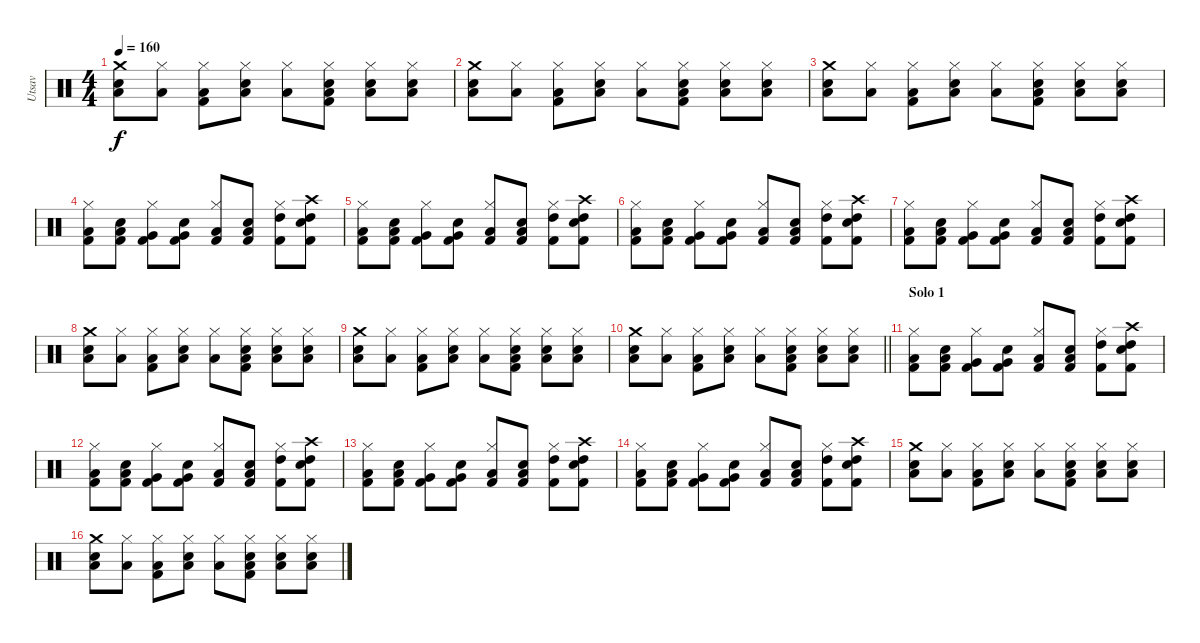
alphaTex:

\track ("Utsav" "Utsav") {instrument percussion}
\staff {score}
\articulation defaults
\ts (4 4)
\tempo 160
\clef neutral
\ks c
("Crash medium (hit)" "Low Floor Tom (hit)" "Snare (hit) 2").8{dy f} ("Low Floor Tom (hit)" "Hi-Hat (closed)").8 ("Low Floor Tom (hit)" "Hi-Hat (closed)" "Kick (hit) 2").8 ("Low Floor Tom (hit)" "Hi-Hat (closed)" "Snare (hit) 2").8 ("Low Floor Tom (hit)" "Hi-Hat (closed)").8 ("Low Floor Tom (hit)" "Hi-Hat (closed)" "Snare (hit) 2" "Kick (hit) 2").8 ("Low Floor Tom (hit)" "Hi-Hat (closed)" "Snare (hit) 2").8 ("Low Floor Tom (hit)" "Hi-Hat (closed)" "Snare (hit) 2").8 |
("Crash medium (hit)" "Low Floor Tom (hit)" "Snare (hit) 2").8 ("Low Floor Tom (hit)" "Hi-Hat (closed)").8 ("Low Floor Tom (hit)" "Hi-Hat (closed)" "Kick (hit) 2").8 ("Low Floor Tom (hit)" "Hi-Hat (closed)" "Snare (hit) 2").8 ("Low Floor Tom (hit)" "Hi-Hat (closed)").8 ("Low Floor Tom (hit)" "Hi-Hat (closed)" "Snare (hit) 2" "Kick (hit) 2").8 ("Low Floor Tom (hit)" "Hi-Hat (closed)" "Snare (hit) 2").8 ("Low Floor Tom (hit)" "Hi-Hat (closed)" "Snare (hit) 2").8 |
("Crash medium (hit)" "Low Floor Tom (hit)" "Snare (hit) 2").8 ("Low Floor Tom (hit)" "Hi-Hat (closed)").8 ("Low Floor Tom (hit)" "Hi-Hat (closed)" "Kick (hit) 2").8 ("Low Floor Tom (hit)" "Hi-Hat (closed)" "Snare (hit) 2").8 ("Low Floor Tom (hit)" "Hi-Hat (closed)").8 ("Low Floor Tom (hit)" "Hi-Hat (closed)" "Snare (hit) 2" "Kick (hit) 2").8 ("Low Floor Tom (hit)" "Hi-Hat (closed)" "Snare (hit) 2").8 ("Low Floor Tom (hit)" "Hi-Hat (closed)" "Snare (hit) 2").8 |
("Low Tom (hit)" "Hi-Hat (closed)" "Kick (hit) 2").8 ("Low Tom (hit)" "Snare (hit) 2" "Kick (hit) 2").8 ("Very Low Tom (hit)" "Hi-Hat (closed)" "Kick (hit) 2").8 ("Very Low Tom (hit)" "Snare (hit) 2" "Kick (hit) 2").8 ("Low Floor Tom (hit)" "Hi-Hat (closed)" "Kick (hit) 2").8 ("Low Floor Tom (hit)" "Snare (hit) 2" "Kick (hit) 2").8 ("High Tom (hit)" "Hi-Hat (closed)" "Kick (hit) 2").8 ("High Tom (hit)" "Crash high (hit)" "Snare (hit) 2" "Kick (hit) 2").8 |
("Low Tom (hit)" "Hi-Hat (closed)" "Kick (hit) 2").8 ("Low Tom (hit)" "Snare (hit) 2" "Kick (hit) 2").8 ("Very Low Tom (hit)" "Hi-Hat (closed)" "Kick (hit) 2").8 ("Very Low Tom (hit)" "Snare (hit) 2" "Kick (hit) 2").8 ("Low Floor Tom (hit)" "Hi-Hat (closed)" "Kick (hit) 2").8 ("Low Floor Tom (hit)" "Snare (hit) 2" "Kick (hit) 2").8 ("High Tom (hit)" "Hi-Hat (closed)" "Kick (hit) 2").8 ("High Tom (hit)" "Crash high (hit)" "Snare (hit) 2" "Kick (hit) 2").8 |
("Low Tom (hit)" "Hi-Hat (closed)" "Kick (hit) 2").8 ("Low Tom (hit)" "Snare (hit) 2" "Kick (hit) 2").8 ("Very Low Tom (hit)" "Hi-Hat (closed)" "Kick (hit) 2").8 ("Very Low Tom (hit)" "Snare (hit) 2" "Kick (hit) 2").8 ("Low Floor Tom (hit)" "Hi-Hat (closed)" "Kick (hit) 2").8 ("Low Floor Tom (hit)" "Snare (hit) 2" "Kick (hit) 2").8 ("High Tom (hit)" "Hi-Hat (closed)" "Kick (hit) 2").8 ("High Tom (hit)" "Crash high (hit)" "Snare (hit) 2" "Kick (hit) 2").8 |
("Low Tom (hit)" "Hi-Hat (closed)" "Kick (hit) 2").8 ("Low Tom (hit)" "Snare (hit) 2" "Kick (hit) 2").8 ("Very Low Tom (hit)" "Hi-Hat (closed)" "Kick (hit) 2").8 ("Very Low Tom (hit)" "Snare (hit) 2" "Kick (hit) 2").8 ("Low Floor Tom (hit)" "Hi-Hat (closed)" "Kick (hit) 2").8 ("Low Floor Tom (hit)" "Snare (hit) 2" "Kick (hit) 2").8 ("High Tom (hit)" "Hi-Hat (closed)" "Kick (hit) 2").8 ("High Tom (hit)" "Crash high (hit)" "Snare (hit) 2" "Kick (hit) 2").8 |
("Crash medium (hit)" "Low Floor Tom (hit)" "Snare (hit) 2").8 ("Low Floor Tom (hit)" "Hi-Hat (closed)").8 ("Low Floor Tom (hit)" "Hi-Hat (closed)" "Kick (hit) 2").8 ("Low Floor Tom (hit)" "Hi-Hat (closed)" "Snare (hit) 2").8 ("Low Floor Tom (hit)" "Hi-Hat (closed)").8 ("Low Floor Tom (hit)" "Hi-Hat (closed)" "Snare (hit) 2" "Kick (hit) 2").8 ("Low Floor Tom (hit)" "Hi-Hat (closed)" "Snare (hit) 2").8 ("Low Floor Tom (hit)" "Hi-Hat (closed)" "Snare (hit) 2").8 |
("Crash medium (hit)" "Low Floor Tom (hit)" "Snare (hit) 2").8 ("Low Floor Tom (hit)" "Hi-Hat (closed)").8 ("Low Floor Tom (hit)" "Hi-Hat (closed)" "Kick (hit) 2").8 ("Low Floor Tom (hit)" "Hi-Hat (closed)" "Snare (hit) 2").8 ("Low Floor Tom (hit)" "Hi-Hat (closed)").8 ("Low Floor Tom (hit)" "Hi-Hat (closed)" "Snare (hit) 2" "Kick (hit) 2").8 ("Low Floor Tom (hit)" "Hi-Hat (closed)" "Snare (hit) 2").8 ("Low Floor Tom (hit)" "Hi-Hat (closed)" "Snare (hit) 2").8 |
\barLineRight lightlight
("Crash medium (hit)" "Low Floor Tom (hit)" "Snare (hit) 2").8 ("Low Floor Tom (hit)" "Hi-Hat (closed)").8 ("Low Floor Tom (hit)" "Hi-Hat (closed)" "Kick (hit) 2").8 ("Low Floor Tom (hit)" "Hi-Hat (closed)" "Snare (hit) 2").8 ("Low Floor Tom (hit)" "Hi-Hat (closed)").8 ("Low Floor Tom (hit)" "Hi-Hat (closed)" "Snare (hit) 2" "Kick (hit) 2").8 ("Low Floor Tom (hit)" "Hi-Hat (closed)" "Snare (hit) 2").8 ("Low Floor Tom (hit)" "Hi-Hat (closed)" "Snare (hit) 2").8 |
\section ("" "Solo 1")
("Low Tom (hit)" "Hi-Hat (closed)" "Kick (hit) 2").8 ("Low Tom (hit)" "Snare (hit) 2" "Kick (hit) 2").8 ("Very Low Tom (hit)" "Hi-Hat (closed)" "Kick (hit) 2").8 ("Very Low Tom (hit)" "Snare (hit) 2" "Kick (hit) 2").8 ("Low Floor Tom (hit)" "Hi-Hat (closed)" "Kick (hit) 2").8 ("Low Floor Tom (hit)" "Snare (hit) 2" "Kick (hit) 2").8 ("High Tom (hit)" "Hi-Hat (closed)" "Kick (hit) 2").8 ("High Tom (hit)" "Crash high (hit)" "Snare (hit) 2" "Kick (hit) 2").8 |
("Low Tom (hit)" "Hi-Hat (closed)" "Kick (hit) 2").8 ("Low Tom (hit)" "Snare (hit) 2" "Kick (hit) 2").8 ("Very Low Tom (hit)" "Hi-Hat (closed)" "Kick (hit) 2").8 ("Very Low Tom (hit)" "Snare (hit) 2" "Kick (hit) 2").8 ("Low Floor Tom (hit)" "Hi-Hat (closed)" "Kick (hit) 2").8 ("Low Floor Tom (hit)" "Snare (hit) 2" "Kick (hit) 2").8 ("High Tom (hit)" "Hi-Hat (closed)" "Kick (hit) 2").8 ("High Tom (hit)" "Crash high (hit)" "Snare (hit) 2" "Kick (hit) 2").8 |
("Low Tom (hit)" "Hi-Hat (closed)" "Kick (hit) 2").8 ("Low Tom (hit)" "Snare (hit) 2" "Kick (hit) 2").8 ("Very Low Tom (hit)" "Hi-Hat (closed)" "Kick (hit) 2").8 ("Very Low Tom (hit)" "Snare (hit) 2" "Kick (hit) 2").8 ("Low Floor Tom (hit)" "Hi-Hat (closed)" "Kick (hit) 2").8 ("Low Floor Tom (hit)" "Snare (hit) 2" "Kick (hit) 2").8 ("High Tom (hit)" "Hi-Hat (closed)" "Kick (hit) 2").8 ("High Tom (hit)" "Crash high (hit)" "Snare (hit) 2" "Kick (hit) 2").8 |
("Low Tom (hit)" "Hi-Hat (closed)" "Kick (hit) 2").8 ("Low Tom (hit)" "Snare (hit) 2" "Kick (hit) 2").8 ("Very Low Tom (hit)" "Hi-Hat (closed)" "Kick (hit) 2").8 ("Very Low Tom (hit)" "Snare (hit) 2" "Kick (hit) 2").8 ("Low Floor Tom (hit)" "Hi-Hat (closed)" "Kick (hit) 2").8 ("Low Floor Tom (hit)" "Snare (hit) 2" "Kick (hit) 2").8 ("High Tom (hit)" "Hi-Hat (closed)" "Kick (hit) 2").8 ("High Tom (hit)" "Crash high (hit)" "Snare (hit) 2" "Kick (hit) 2").8 |
("Crash medium (hit)" "Low Floor Tom (hit)" "Snare (hit) 2").8 ("Low Floor Tom (hit)" "Hi-Hat (closed)").8 ("Low Floor Tom (hit)" "Hi-Hat (closed)" "Kick (hit) 2").8 ("Low Floor Tom (hit)" "Hi-Hat (closed)" "Snare (hit) 2").8 ("Low Floor Tom (hit)" "Hi-Hat (closed)").8 ("Low Floor Tom (hit)" "Hi-Hat (closed)" "Snare (hit) 2" "Kick (hit) 2").8 ("Low Floor Tom (hit)" "Hi-Hat (closed)" "Snare (hit) 2").8 ("Low Floor Tom (hit)" "Hi-Hat (closed)" "Snare (hit) 2").8 |
("Crash medium (hit)" "Low Floor Tom (hit)" "Snare (hit) 2").8 ("Low Floor Tom (hit)" "Hi-Hat (closed)").8 ("Low Floor Tom (hit)" "Hi-Hat (closed)" "Kick (hit) 2").8 ("Low Floor Tom (hit)" "Hi-Hat (closed)" "Snare (hit) 2").8 ("Low Floor Tom (hit)" "Hi-Hat (closed)").8 ("Low Floor Tom (hit)" "Hi-Hat (closed)" "Snare (hit) 2" "Kick (hit) 2").8 ("Low Floor Tom (hit)" "Hi-Hat (closed)" "Snare (hit) 2").8 ("Low Floor Tom (hit)" "Hi-Hat (closed)" "Snare (hit) 2").8
